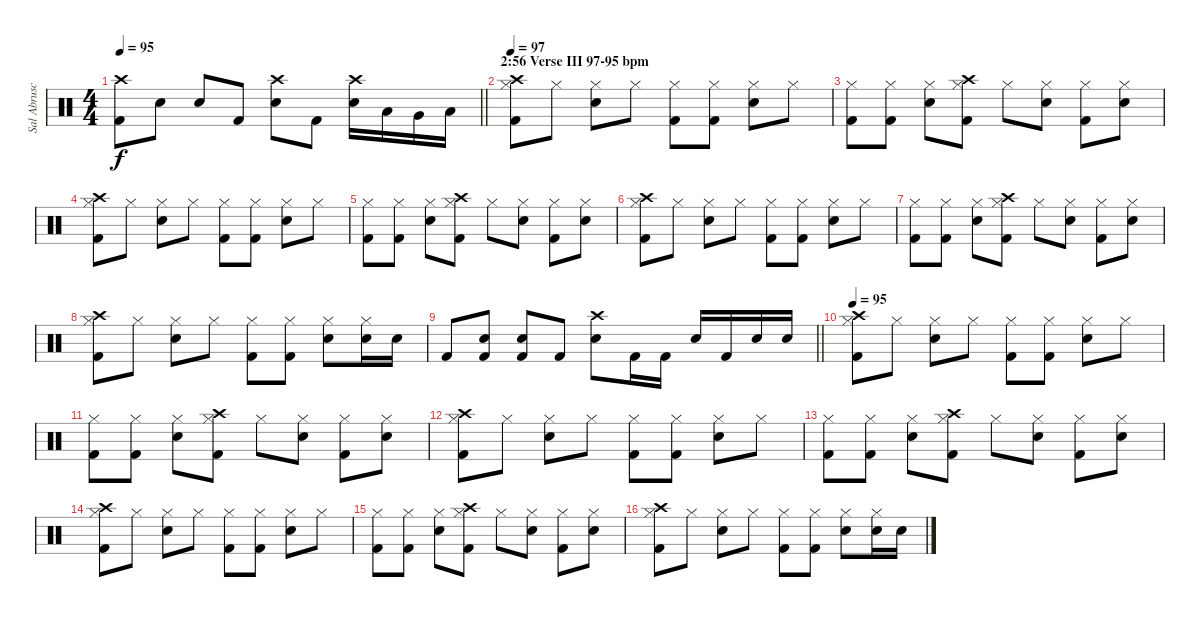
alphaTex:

\track ("Sal Abruscato (Drums)" "Sal Abrusc") {instrument percussion}
\staff {score}
\articulation defaults
\ts (4 4)
\tempo 95
\clef neutral
\barLineRight lightlight
\ks c
("Crash high (hit)" "Kick (hit) 2").8{dy f} "Electric Snare (hit)".8 "Electric Snare (hit)".8 "Kick (hit) 2".8 ("Crash high (hit)" "Electric Snare (hit)").8 "Kick (hit) 2".8 ("Crash high (hit)" "Electric Snare (hit)").16 "Low Tom (hit)".16 "Very Low Tom (hit)".16 "Low Floor Tom (hit)".16 |
\section ("" "2:56 Verse III 97-95 bpm")
\tempo 97
("Crash high (hit)" "Hi-Hat (closed)" "Kick (hit) 2").8 "Hi-Hat (closed)".8 ("Hi-Hat (closed)" "Electric Snare (hit)").8 "Hi-Hat (closed)".8 ("Hi-Hat (closed)" "Kick (hit) 2").8 ("Hi-Hat (closed)" "Kick (hit) 2").8 ("Hi-Hat (closed)" "Electric Snare (hit)").8 "Hi-Hat (closed)".8 |
("Hi-Hat (closed)" "Kick (hit) 2").8 ("Hi-Hat (closed)" "Kick (hit) 2").8 ("Hi-Hat (closed)" "Electric Snare (hit)").8 ("Crash high (hit)" "Hi-Hat (closed)" "Kick (hit) 2").8 "Hi-Hat (closed)".8 ("Hi-Hat (closed)" "Electric Snare (hit)").8 ("Hi-Hat (closed)" "Kick (hit) 2").8 ("Hi-Hat (closed)" "Electric Snare (hit)").8 |
("Crash high (hit)" "Hi-Hat (closed)" "Kick (hit) 2").8 "Hi-Hat (closed)".8 ("Hi-Hat (closed)" "Electric Snare (hit)").8 "Hi-Hat (closed)".8 ("Hi-Hat (closed)" "Kick (hit) 2").8 ("Hi-Hat (closed)" "Kick (hit) 2").8 ("Hi-Hat (closed)" "Electric Snare (hit)").8 "Hi-Hat (closed)".8 |
("Hi-Hat (closed)" "Kick (hit) 2").8 ("Hi-Hat (closed)" "Kick (hit) 2").8 ("Hi-Hat (closed)" "Electric Snare (hit)").8 ("Crash high (hit)" "Hi-Hat (closed)" "Kick (hit) 2").8 "Hi-Hat (closed)".8 ("Hi-Hat (closed)" "Electric Snare (hit)").8 ("Hi-Hat (closed)" "Kick (hit) 2").8 ("Hi-Hat (closed)" "Electric Snare (hit)").8 |
("Crash high (hit)" "Hi-Hat (closed)" "Kick (hit) 2").8 "Hi-Hat (closed)".8 ("Hi-Hat (closed)" "Electric Snare (hit)").8 "Hi-Hat (closed)".8 ("Hi-Hat (closed)" "Kick (hit) 2").8 ("Hi-Hat (closed)" "Kick (hit) 2").8 ("Hi-Hat (closed)" "Electric Snare (hit)").8 "Hi-Hat (closed)".8 |
("Hi-Hat (closed)" "Kick (hit) 2").8 ("Hi-Hat (closed)" "Kick (hit) 2").8 ("Hi-Hat (closed)" "Electric Snare (hit)").8 ("Crash high (hit)" "Hi-Hat (closed)" "Kick (hit) 2").8 "Hi-Hat (closed)".8 ("Hi-Hat (closed)" "Electric Snare (hit)").8 ("Hi-Hat (closed)" "Kick (hit) 2").8 ("Hi-Hat (closed)" "Electric Snare (hit)").8 |
("Crash high (hit)" "Hi-Hat (closed)" "Kick (hit) 2").8 "Hi-Hat (closed)".8 ("Hi-Hat (closed)" "Electric Snare (hit)").8 "Hi-Hat (closed)".8 ("Hi-Hat (closed)" "Kick (hit) 2").8 ("Hi-Hat (closed)" "Kick (hit) 2").8 ("Hi-Hat (closed)" "Electric Snare (hit)").8 ("Electric Snare (hit)" "Hi-Hat (closed)").16 "Electric Snare (hit)".16 |
\barLineRight lightlight "Kick (hit) 2".8
("Electric Snare (hit)" "Kick (hit) 2").8 ("Electric Snare (hit)" "Kick (hit) 2").8 "Kick (hit) 2".8 ("Crash high (hit)" "Electric Snare (hit)").8 "Kick (hit) 2".16 "Kick (hit) 2".16 "Electric Snare (hit)".16 "Kick (hit) 2".16 "Electric Snare (hit)".16 "Electric Snare (hit)".16 |
\tempo 95
("Crash high (hit)" "Hi-Hat (closed)" "Kick (hit) 2").8 "Hi-Hat (closed)".8 ("Hi-Hat (closed)" "Electric Snare (hit)").8 "Hi-Hat (closed)".8 ("Hi-Hat (closed)" "Kick (hit) 2").8 ("Hi-Hat (closed)" "Kick (hit) 2").8 ("Hi-Hat (closed)" "Electric Snare (hit)").8 "Hi-Hat (closed)".8 |
("Hi-Hat (closed)" "Kick (hit) 2").8 ("Hi-Hat (closed)" "Kick (hit) 2").8 ("Hi-Hat (closed)" "Electric Snare (hit)").8 ("Crash high (hit)" "Hi-Hat (closed)" "Kick (hit) 2").8 "Hi-Hat (closed)".8 ("Hi-Hat (closed)" "Electric Snare (hit)").8 ("Hi-Hat (closed)" "Kick (hit) 2").8 ("Hi-Hat (closed)" "Electric Snare (hit)").8 |
("Crash high (hit)" "Hi-Hat (closed)" "Kick (hit) 2").8 "Hi-Hat (closed)".8 ("Hi-Hat (closed)" "Electric Snare (hit)").8 "Hi-Hat (closed)".8 ("Hi-Hat (closed)" "Kick (hit) 2").8 ("Hi-Hat (closed)" "Kick (hit) 2").8 ("Hi-Hat (closed)" "Electric Snare (hit)").8 "Hi-Hat (closed)".8 |
("Hi-Hat (closed)" "Kick (hit) 2").8 ("Hi-Hat (closed)" "Kick (hit) 2").8 ("Hi-Hat (closed)" "Electric Snare (hit)").8 ("Crash high (hit)" "Hi-Hat (closed)" "Kick (hit) 2").8 "Hi-Hat (closed)".8 ("Hi-Hat (closed)" "Electric Snare (hit)").8 ("Hi-Hat (closed)" "Kick (hit) 2").8 ("Hi-Hat (closed)" "Electric Snare (hit)").8 |
("Crash high (hit)" "Hi-Hat (closed)" "Kick (hit) 2").8 "Hi-Hat (closed)".8 ("Hi-Hat (closed)" "Electric Snare (hit)").8 "Hi-Hat (closed)".8 ("Hi-Hat (closed)" "Kick (hit) 2").8 ("Hi-Hat (closed)" "Kick (hit) 2").8 ("Hi-Hat (closed)" "Electric Snare (hit)").8 "Hi-Hat (closed)".8 |
("Hi-Hat (closed)" "Kick (hit) 2").8 ("Hi-Hat (closed)" "Kick (hit) 2").8 ("Hi-Hat (closed)" "Electric Snare (hit)").8 ("Crash high (hit)" "Hi-Hat (closed)" "Kick (hit) 2").8 "Hi-Hat (closed)".8 ("Hi-Hat (closed)" "Electric Snare (hit)").8 ("Hi-Hat (closed)" "Kick (hit) 2").8 ("Hi-Hat (closed)" "Electric Snare (hit)").8 |
("Crash high (hit)" "Hi-Hat (closed)" "Kick (hit) 2").8 "Hi-Hat (closed)".8 ("Hi-Hat (closed)" "Electric Snare (hit)").8 "Hi-Hat (closed)".8 ("Hi-Hat (closed)" "Kick (hit) 2").8 ("Hi-Hat (closed)" "Kick (hit) 2").8 ("Hi-Hat (closed)" "Electric Snare (hit)").8 ("Electric Snare (hit)" "Hi-Hat (closed)").16 "Electric Snare (hit)".16
